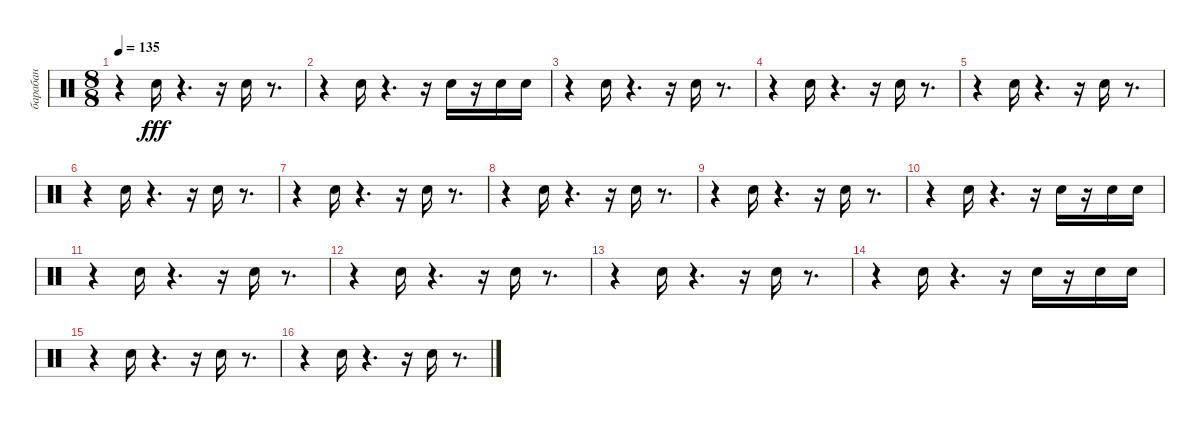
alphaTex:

\track ("барабан" "барабан") {instrument percussion}
\staff {score}
\articulation defaults
\ts (8 8)
\tempo 135
\clef neutral
\ks c
r.4{dy fff} "Snare (hit) 2".16 r.4{d} r.16 "Snare (hit) 2".16 r.8{d} |
r.4 "Snare (hit) 2".16 r.4{d} r.16 "Snare (hit) 2".16 r.16 "Snare (hit) 2".16 "Snare (hit) 2".16 |
r.4 "Snare (hit) 2".16 r.4{d} r.16 "Snare (hit) 2".16 r.8{d} |
r.4 "Snare (hit) 2".16 r.4{d} r.16 "Snare (hit) 2".16 r.8{d} |
r.4 "Snare (hit) 2".16 r.4{d} r.16 "Snare (hit) 2".16 r.8{d} |
r.4 "Snare (hit) 2".16 r.4{d} r.16 "Snare (hit) 2".16 r.8{d} |
r.4 "Snare (hit) 2".16 r.4{d} r.16 "Snare (hit) 2".16 r.8{d} |
r.4 "Snare (hit) 2".16 r.4{d} r.16 "Snare (hit) 2".16 r.8{d} |
r.4 "Snare (hit) 2".16 r.4{d} r.16 "Snare (hit) 2".16 r.8{d} |
r.4 "Snare (hit) 2".16 r.4{d} r.16 "Snare (hit) 2".16 r.16 "Snare (hit) 2".16 "Snare (hit) 2".16 |
r.4 "Snare (hit) 2".16 r.4{d} r.16 "Snare (hit) 2".16 r.8{d} |
r.4 "Snare (hit) 2".16 r.4{d} r.16 "Snare (hit) 2".16 r.8{d} |
r.4 "Snare (hit) 2".16 r.4{d} r.16 "Snare (hit) 2".16 r.8{d} |
r.4 "Snare (hit) 2".16 r.4{d} r.16 "Snare (hit) 2".16 r.16 "Snare (hit) 2".16 "Snare (hit) 2".16 |
r.4 "Snare (hit) 2".16 r.4{d} r.16 "Snare (hit) 2".16 r.8{d} |
r.4 "Snare (hit) 2".16 r.4{d} r.16 "Snare (hit) 2".16 r.8{d}
